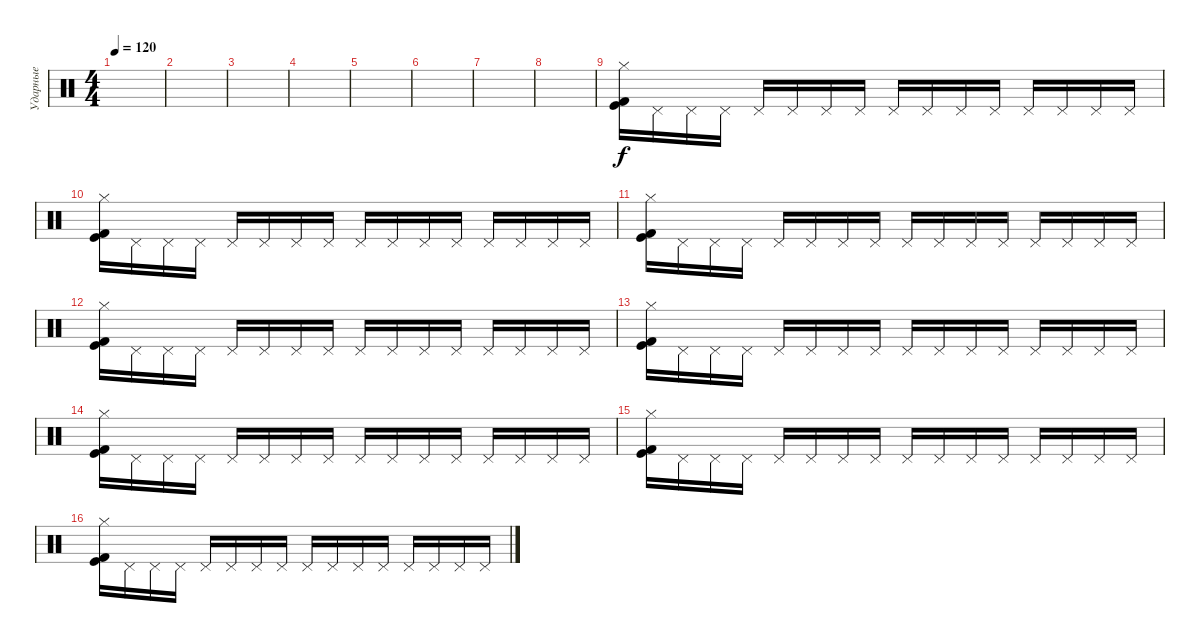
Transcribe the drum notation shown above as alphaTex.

\track ("Ударные" "Ударные") {instrument percussion}
\staff {score}
\articulation defaults
\ts (4 4)
\tempo 120
\clef neutral
\ks c
|
|
|
|
|
|
|
|
("Hi-Hat (closed)" "Kick (hit)" "Kick (hit) 2").16 "Pedal Hi-Hat (hit)".16 "Pedal Hi-Hat (hit)".16 "Pedal Hi-Hat (hit)".16 "Pedal Hi-Hat (hit)".16 "Pedal Hi-Hat (hit)".16 "Pedal Hi-Hat (hit)".16 "Pedal Hi-Hat (hit)".16 "Pedal Hi-Hat (hit)".16 "Pedal Hi-Hat (hit)".16 "Pedal Hi-Hat (hit)".16 "Pedal Hi-Hat (hit)".16 "Pedal Hi-Hat (hit)".16 "Pedal Hi-Hat (hit)".16 "Pedal Hi-Hat (hit)".16 "Pedal Hi-Hat (hit)".16 |
("Hi-Hat (closed)" "Kick (hit)" "Kick (hit) 2").16 "Pedal Hi-Hat (hit)".16 "Pedal Hi-Hat (hit)".16 "Pedal Hi-Hat (hit)".16 "Pedal Hi-Hat (hit)".16 "Pedal Hi-Hat (hit)".16 "Pedal Hi-Hat (hit)".16 "Pedal Hi-Hat (hit)".16 "Pedal Hi-Hat (hit)".16 "Pedal Hi-Hat (hit)".16 "Pedal Hi-Hat (hit)".16 "Pedal Hi-Hat (hit)".16 "Pedal Hi-Hat (hit)".16 "Pedal Hi-Hat (hit)".16 "Pedal Hi-Hat (hit)".16 "Pedal Hi-Hat (hit)".16 |
("Hi-Hat (closed)" "Kick (hit)" "Kick (hit) 2").16 "Pedal Hi-Hat (hit)".16 "Pedal Hi-Hat (hit)".16 "Pedal Hi-Hat (hit)".16 "Pedal Hi-Hat (hit)".16 "Pedal Hi-Hat (hit)".16 "Pedal Hi-Hat (hit)".16 "Pedal Hi-Hat (hit)".16 "Pedal Hi-Hat (hit)".16 "Pedal Hi-Hat (hit)".16 "Pedal Hi-Hat (hit)".16 "Pedal Hi-Hat (hit)".16 "Pedal Hi-Hat (hit)".16 "Pedal Hi-Hat (hit)".16 "Pedal Hi-Hat (hit)".16 "Pedal Hi-Hat (hit)".16 |
("Hi-Hat (closed)" "Kick (hit)" "Kick (hit) 2").16 "Pedal Hi-Hat (hit)".16 "Pedal Hi-Hat (hit)".16 "Pedal Hi-Hat (hit)".16 "Pedal Hi-Hat (hit)".16 "Pedal Hi-Hat (hit)".16 "Pedal Hi-Hat (hit)".16 "Pedal Hi-Hat (hit)".16 "Pedal Hi-Hat (hit)".16 "Pedal Hi-Hat (hit)".16 "Pedal Hi-Hat (hit)".16 "Pedal Hi-Hat (hit)".16 "Pedal Hi-Hat (hit)".16 "Pedal Hi-Hat (hit)".16 "Pedal Hi-Hat (hit)".16 "Pedal Hi-Hat (hit)".16 |
("Hi-Hat (closed)" "Kick (hit)" "Kick (hit) 2").16 "Pedal Hi-Hat (hit)".16 "Pedal Hi-Hat (hit)".16 "Pedal Hi-Hat (hit)".16 "Pedal Hi-Hat (hit)".16 "Pedal Hi-Hat (hit)".16 "Pedal Hi-Hat (hit)".16 "Pedal Hi-Hat (hit)".16 "Pedal Hi-Hat (hit)".16 "Pedal Hi-Hat (hit)".16 "Pedal Hi-Hat (hit)".16 "Pedal Hi-Hat (hit)".16 "Pedal Hi-Hat (hit)".16 "Pedal Hi-Hat (hit)".16 "Pedal Hi-Hat (hit)".16 "Pedal Hi-Hat (hit)".16 |
("Hi-Hat (closed)" "Kick (hit)" "Kick (hit) 2").16 "Pedal Hi-Hat (hit)".16 "Pedal Hi-Hat (hit)".16 "Pedal Hi-Hat (hit)".16 "Pedal Hi-Hat (hit)".16 "Pedal Hi-Hat (hit)".16 "Pedal Hi-Hat (hit)".16 "Pedal Hi-Hat (hit)".16 "Pedal Hi-Hat (hit)".16 "Pedal Hi-Hat (hit)".16 "Pedal Hi-Hat (hit)".16 "Pedal Hi-Hat (hit)".16 "Pedal Hi-Hat (hit)".16 "Pedal Hi-Hat (hit)".16 "Pedal Hi-Hat (hit)".16 "Pedal Hi-Hat (hit)".16 |
("Hi-Hat (closed)" "Kick (hit)" "Kick (hit) 2").16 "Pedal Hi-Hat (hit)".16 "Pedal Hi-Hat (hit)".16 "Pedal Hi-Hat (hit)".16 "Pedal Hi-Hat (hit)".16 "Pedal Hi-Hat (hit)".16 "Pedal Hi-Hat (hit)".16 "Pedal Hi-Hat (hit)".16 "Pedal Hi-Hat (hit)".16 "Pedal Hi-Hat (hit)".16 "Pedal Hi-Hat (hit)".16 "Pedal Hi-Hat (hit)".16 "Pedal Hi-Hat (hit)".16 "Pedal Hi-Hat (hit)".16 "Pedal Hi-Hat (hit)".16 "Pedal Hi-Hat (hit)".16 |
("Hi-Hat (closed)" "Kick (hit)" "Kick (hit) 2").16 "Pedal Hi-Hat (hit)".16 "Pedal Hi-Hat (hit)".16 "Pedal Hi-Hat (hit)".16 "Pedal Hi-Hat (hit)".16 "Pedal Hi-Hat (hit)".16 "Pedal Hi-Hat (hit)".16 "Pedal Hi-Hat (hit)".16 "Pedal Hi-Hat (hit)".16 "Pedal Hi-Hat (hit)".16 "Pedal Hi-Hat (hit)".16 "Pedal Hi-Hat (hit)".16 "Pedal Hi-Hat (hit)".16 "Pedal Hi-Hat (hit)".16 "Pedal Hi-Hat (hit)".16 "Pedal Hi-Hat (hit)".16
